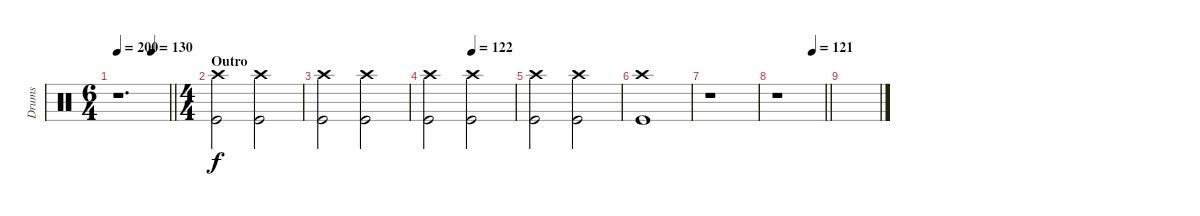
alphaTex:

\track ("Drums" "Drums") {instrument percussion}
\staff {score}
\articulation defaults
\ts (6 4)
\tempo 200
\tempo (130 0.6666666666666666)
\clef neutral
\barLineRight lightlight
\ks c
r.1{d dy f} |
\ts (4 4)
\section ("" "Outro")
("Crash high (hit)" "Kick (hit)").2 ("Crash high (hit)" "Kick (hit)").2 |
("Crash high (hit)" "Kick (hit)").2 ("Crash high (hit)" "Kick (hit)").2 |
\tempo (122 0.5)
("Crash high (hit)" "Kick (hit)").2 ("Crash high (hit)" "Kick (hit)").2 |
("Crash high (hit)" "Kick (hit)").2 ("Crash high (hit)" "Kick (hit)").2 |
("Crash high (hit)" "Kick (hit)").1 |
r.1 |
\tempo (121 0.75)
\barLineRight lightlight
r.1 |
\section ("" "")
